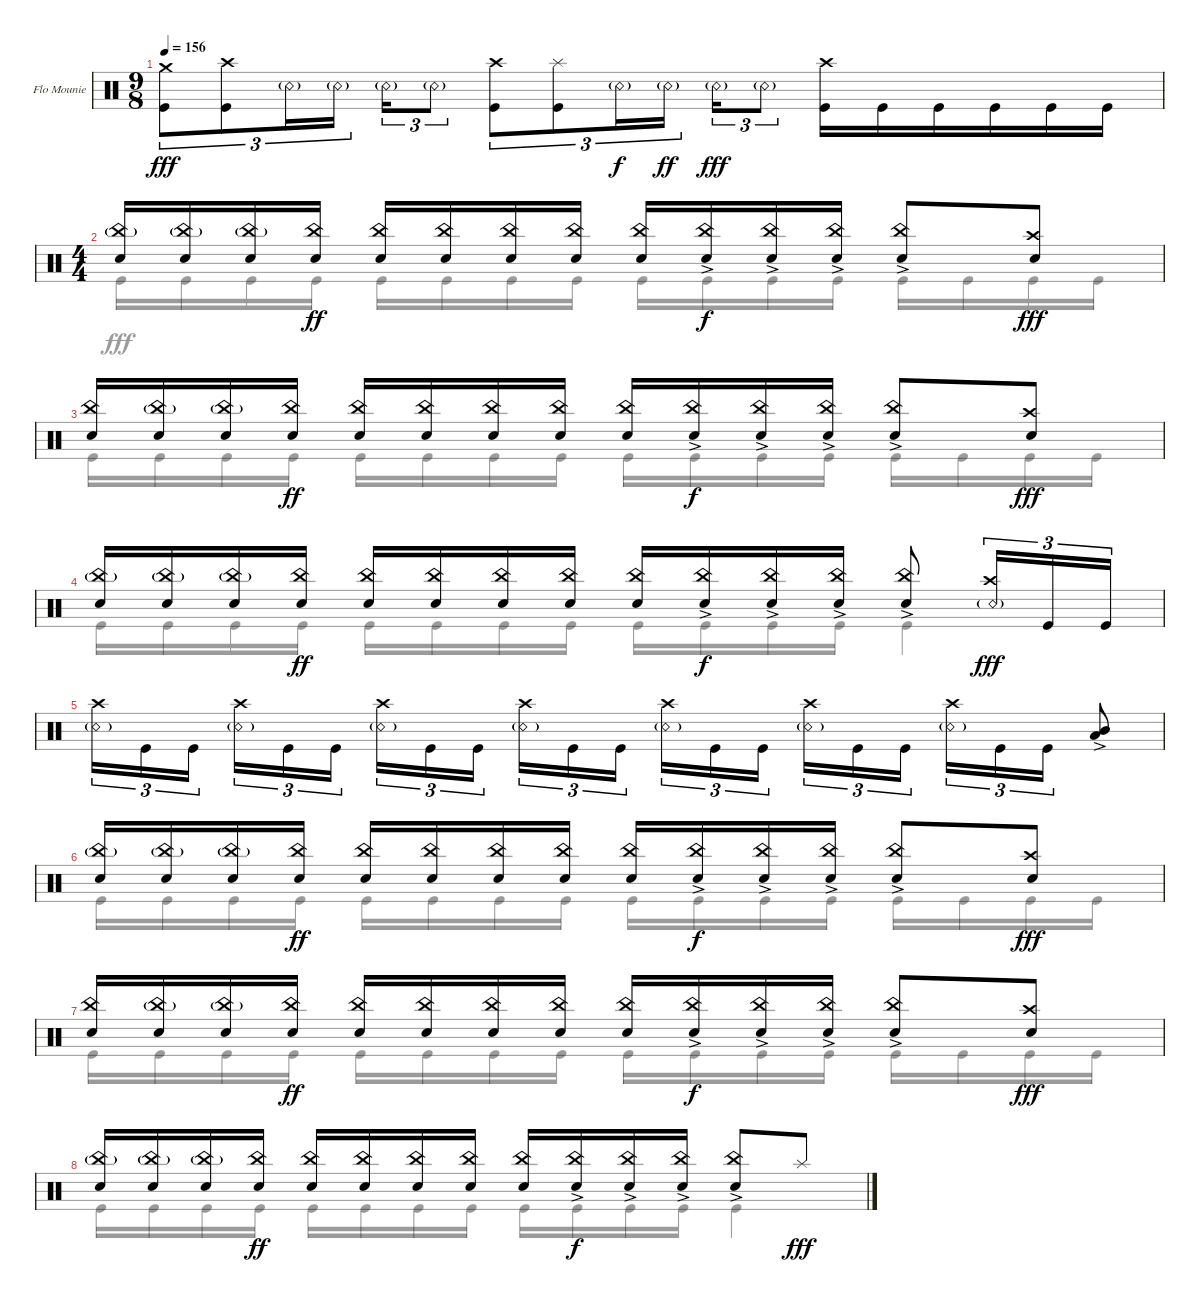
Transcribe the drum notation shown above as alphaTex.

\bracketExtendMode groupsimilarinstruments
\firstSystemTrackNameOrientation horizontal
\otherSystemsTrackNameOrientation horizontal
\track ("Flo Mounier" "Flo Mounie") {instrument percussion}
\staff {score}
\articulation defaults
\voice
\ts (9 8)
\tempo 156
\clef neutral
\ks c
("Crash medium (hit)" "Kick (hit)").8{tu (3 2) dy fff} ("Crash high (hit)" "Kick (hit)").8{tu (3 2)} "Snare (rim shot)"{g}.16{tu (3 2)} "Snare (rim shot)"{g}.16{tu (3 2)} "Snare (rim shot)"{g}.16{tu (3 2)} "Snare (rim shot)"{g}.8{tu (3 2)} ("Crash high (hit)" "Kick (hit)").8{tu (3 2)} ("Splash (hit)" "Kick (hit)").8{tu (3 2)} "Snare (rim shot)"{g}.16{tu (3 2) dy f} "Snare (rim shot)"{g}.16{tu (3 2) dy ff} "Snare (rim shot)"{g}.16{tu (3 2) dy fff} "Snare (rim shot)"{g}.8{tu (3 2)} ("Crash high (hit)" "Kick (hit)").16 "Kick (hit)".16 "Kick (hit)".16 "Kick (hit)".16 "Kick (hit)".16 "Kick (hit)".16 |
\ts (4 4)
\scale
0.320098 ("Snare (hit) 2" "China (hit)"{g}).16 ("Snare (hit) 2" "China (hit)"{g}).16 ("Snare (hit) 2" "China (hit)"{g}).16 ("Snare (hit) 2" "China (hit)").16{dy ff} ("Snare (hit) 2" "China (hit)").16 ("Snare (hit) 2" "China (hit)").16 ("Snare (hit) 2" "China (hit)").16 ("Snare (hit) 2" "China (hit)").16 ("Snare (hit) 2" "China (hit)").16 ("Snare (hit) 2" "China (hit)"{ac}).16{dy f} ("Snare (hit) 2" "China (hit)"{ac}).16 ("Snare (hit) 2" "China (hit)"{ac}).16 ("Snare (hit) 2" "China (hit)"{ac}).8 ("Snare (hit) 2" "Crash high (hit)").8{dy fff} |
\scale
0.289533 ("Snare (hit) 2" "China (hit)").16 ("Snare (hit) 2" "China (hit)"{g}).16 ("Snare (hit) 2" "China (hit)"{g}).16 ("Snare (hit) 2" "China (hit)").16{dy ff} ("Snare (hit) 2" "China (hit)").16 ("Snare (hit) 2" "China (hit)").16 ("Snare (hit) 2" "China (hit)").16 ("Snare (hit) 2" "China (hit)").16 ("Snare (hit) 2" "China (hit)").16 ("Snare (hit) 2" "China (hit)"{ac}).16{dy f} ("Snare (hit) 2" "China (hit)"{ac}).16 ("Snare (hit) 2" "China (hit)"{ac}).16 ("Snare (hit) 2" "China (hit)"{ac}).8 ("Snare (hit) 2" "Crash high (hit)").8{dy fff} |
("Snare (hit) 2" "China (hit)"{g}).16 ("Snare (hit) 2" "China (hit)"{g}).16 ("Snare (hit) 2" "China (hit)"{g}).16 ("Snare (hit) 2" "China (hit)").16{dy ff} ("Snare (hit) 2" "China (hit)").16 ("Snare (hit) 2" "China (hit)").16 ("Snare (hit) 2" "China (hit)").16 ("Snare (hit) 2" "China (hit)").16 ("Snare (hit) 2" "China (hit)").16 ("Snare (hit) 2" "China (hit)"{ac}).16{dy f} ("Snare (hit) 2" "China (hit)"{ac}).16 ("Snare (hit) 2" "China (hit)"{ac}).16 ("Snare (hit) 2" "China (hit)"{ac}).8 ("Snare (rim shot)"{g} "Crash high (hit)").16{tu (3 2) dy fff} "Kick (hit)".16{tu (3 2)} "Kick (hit)".16{tu (3 2)} |
("Snare (rim shot)"{g} "Crash high (hit)").16{tu (3 2)} "Kick (hit)".16{tu (3 2)} "Kick (hit)".16{tu (3 2)} ("Snare (rim shot)"{g} "Crash high (hit)").16{tu (3 2)} "Kick (hit)".16{tu (3 2)} "Kick (hit)".16{tu (3 2)} ("Snare (rim shot)"{g} "Crash high (hit)").16{tu (3 2)} "Kick (hit)".16{tu (3 2)} "Kick (hit)".16{tu (3 2)} ("Snare (rim shot)"{g} "Crash high (hit)").16{tu (3 2)} "Kick (hit)".16{tu (3 2)} "Kick (hit)".16{tu (3 2)} ("Snare (rim shot)"{g} "Crash high (hit)").16{tu (3 2)} "Kick (hit)".16{tu (3 2)} "Kick (hit)".16{tu (3 2)} ("Snare (rim shot)"{g} "Crash high (hit)").16{tu (3 2)} "Kick (hit)".16{tu (3 2)} "Kick (hit)".16{tu (3 2)} ("Snare (rim shot)"{g} "Crash high (hit)").16{tu (3 2)} "Kick (hit)".16{tu (3 2)} "Kick (hit)".16{tu (3 2)} ("Low Tom (hit)"{ac} "Mid Tom (hit)"{ac}).8 |
("Snare (hit) 2" "China (hit)"{g}).16 ("Snare (hit) 2" "China (hit)"{g}).16 ("Snare (hit) 2" "China (hit)"{g}).16 ("Snare (hit) 2" "China (hit)").16{dy ff} ("Snare (hit) 2" "China (hit)").16 ("Snare (hit) 2" "China (hit)").16 ("Snare (hit) 2" "China (hit)").16 ("Snare (hit) 2" "China (hit)").16 ("Snare (hit) 2" "China (hit)").16 ("Snare (hit) 2" "China (hit)"{ac}).16{dy f} ("Snare (hit) 2" "China (hit)"{ac}).16 ("Snare (hit) 2" "China (hit)"{ac}).16 ("Snare (hit) 2" "China (hit)"{ac}).8 ("Snare (hit) 2" "Crash high (hit)").8{dy fff} |
("Snare (hit) 2" "China (hit)").16 ("Snare (hit) 2" "China (hit)"{g}).16 ("Snare (hit) 2" "China (hit)"{g}).16 ("Snare (hit) 2" "China (hit)").16{dy ff} ("Snare (hit) 2" "China (hit)").16 ("Snare (hit) 2" "China (hit)").16 ("Snare (hit) 2" "China (hit)").16 ("Snare (hit) 2" "China (hit)").16 ("Snare (hit) 2" "China (hit)").16 ("Snare (hit) 2" "China (hit)"{ac}).16{dy f} ("Snare (hit) 2" "China (hit)"{ac}).16 ("Snare (hit) 2" "China (hit)"{ac}).16 ("Snare (hit) 2" "China (hit)"{ac}).8 ("Snare (hit) 2" "Crash high (hit)").8{dy fff} |
("Snare (hit) 2" "China (hit)"{g}).16 ("Snare (hit) 2" "China (hit)"{g}).16 ("Snare (hit) 2" "China (hit)"{g}).16 ("Snare (hit) 2" "China (hit)").16{dy ff} ("Snare (hit) 2" "China (hit)").16 ("Snare (hit) 2" "China (hit)").16 ("Snare (hit) 2" "China (hit)").16 ("Snare (hit) 2" "China (hit)").16 ("Snare (hit) 2" "China (hit)").16 ("Snare (hit) 2" "China (hit)"{ac}).16{dy f} ("Snare (hit) 2" "China (hit)"{ac}).16 ("Snare (hit) 2" "China (hit)"{ac}).16 ("Snare (hit) 2" "China (hit)"{ac}).8 "Splash (hit)".8{dy fff}
\voice
\clef neutral
\ottava regular
\simile none
\ks c
|
\scale
0.320098 "Kick (hit)".16 "Kick (hit)".16 "Kick (hit)".16 "Kick (hit)".16 "Kick (hit)".16 "Kick (hit)".16 "Kick (hit)".16 "Kick (hit)".16 "Kick (hit)".16 "Kick (hit)".16 "Kick (hit)".16 "Kick (hit)".16 "Kick (hit)".16 "Kick (hit)".16 "Kick (hit)".16 "Kick (hit)".16 |
\scale
0.289533 "Kick (hit)".16 "Kick (hit)".16 "Kick (hit)".16 "Kick (hit)".16 "Kick (hit)".16 "Kick (hit)".16 "Kick (hit)".16 "Kick (hit)".16 "Kick (hit)".16 "Kick (hit)".16 "Kick (hit)".16 "Kick (hit)".16 "Kick (hit)".16 "Kick (hit)".16 "Kick (hit)".16 "Kick (hit)".16 |
"Kick (hit)".16 "Kick (hit)".16 "Kick (hit)".16 "Kick (hit)".16 "Kick (hit)".16 "Kick (hit)".16 "Kick (hit)".16 "Kick (hit)".16 "Kick (hit)".16 "Kick (hit)".16 "Kick (hit)".16 "Kick (hit)".16 "Kick (hit)".4 |
|
"Kick (hit)".16 "Kick (hit)".16 "Kick (hit)".16 "Kick (hit)".16 "Kick (hit)".16 "Kick (hit)".16 "Kick (hit)".16 "Kick (hit)".16 "Kick (hit)".16 "Kick (hit)".16 "Kick (hit)".16 "Kick (hit)".16 "Kick (hit)".16 "Kick (hit)".16 "Kick (hit)".16 "Kick (hit)".16 |
"Kick (hit)".16 "Kick (hit)".16 "Kick (hit)".16 "Kick (hit)".16 "Kick (hit)".16 "Kick (hit)".16 "Kick (hit)".16 "Kick (hit)".16 "Kick (hit)".16 "Kick (hit)".16 "Kick (hit)".16 "Kick (hit)".16 "Kick (hit)".16 "Kick (hit)".16 "Kick (hit)".16 "Kick (hit)".16 |
"Kick (hit)".16 "Kick (hit)".16 "Kick (hit)".16 "Kick (hit)".16 "Kick (hit)".16 "Kick (hit)".16 "Kick (hit)".16 "Kick (hit)".16 "Kick (hit)".16 "Kick (hit)".16 "Kick (hit)".16 "Kick (hit)".16 "Kick (hit)".4
